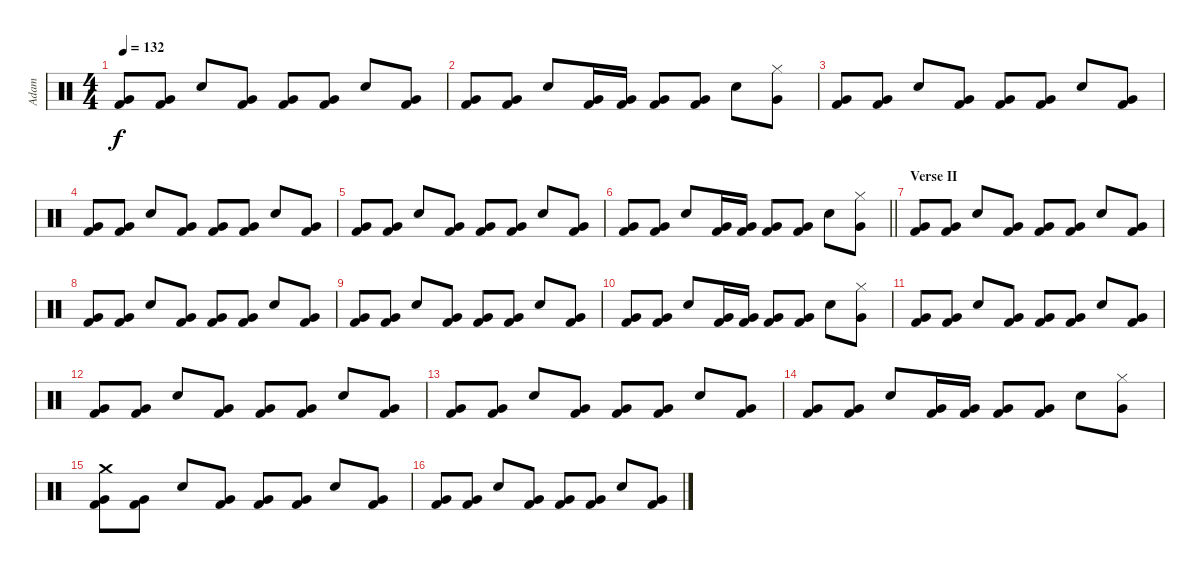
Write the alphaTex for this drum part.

\track ("Adam" "Adam") {instrument percussion}
\staff {score}
\articulation defaults
\ts (4 4)
\tempo 132
\clef neutral
\ks c
("Very Low Tom (hit)" "Kick (hit) 2").8{dy f} ("Very Low Tom (hit)" "Kick (hit) 2").8 "Snare (hit) 2".8 ("Very Low Tom (hit)" "Kick (hit) 2").8 ("Very Low Tom (hit)" "Kick (hit) 2").8 ("Very Low Tom (hit)" "Kick (hit) 2").8 "Snare (hit) 2".8 ("Very Low Tom (hit)" "Kick (hit) 2").8 |
("Very Low Tom (hit)" "Kick (hit) 2").8 ("Very Low Tom (hit)" "Kick (hit) 2").8 "Snare (hit) 2".8 ("Very Low Tom (hit)" "Kick (hit) 2").16 ("Very Low Tom (hit)" "Kick (hit) 2").16 ("Very Low Tom (hit)" "Kick (hit) 2").8 ("Very Low Tom (hit)" "Kick (hit) 2").8 "Snare (hit) 2".8 ("Hi-Hat (closed)" "Very Low Tom (hit)").8 |
("Very Low Tom (hit)" "Kick (hit) 2").8 ("Very Low Tom (hit)" "Kick (hit) 2").8 "Snare (hit) 2".8 ("Very Low Tom (hit)" "Kick (hit) 2").8 ("Very Low Tom (hit)" "Kick (hit) 2").8 ("Very Low Tom (hit)" "Kick (hit) 2").8 "Snare (hit) 2".8 ("Very Low Tom (hit)" "Kick (hit) 2").8 |
("Very Low Tom (hit)" "Kick (hit) 2").8 ("Very Low Tom (hit)" "Kick (hit) 2").8 "Snare (hit) 2".8 ("Very Low Tom (hit)" "Kick (hit) 2").8 ("Very Low Tom (hit)" "Kick (hit) 2").8 ("Very Low Tom (hit)" "Kick (hit) 2").8 "Snare (hit) 2".8 ("Very Low Tom (hit)" "Kick (hit) 2").8 |
("Very Low Tom (hit)" "Kick (hit) 2").8 ("Very Low Tom (hit)" "Kick (hit) 2").8 "Snare (hit) 2".8 ("Very Low Tom (hit)" "Kick (hit) 2").8 ("Very Low Tom (hit)" "Kick (hit) 2").8 ("Very Low Tom (hit)" "Kick (hit) 2").8 "Snare (hit) 2".8 ("Very Low Tom (hit)" "Kick (hit) 2").8 |
\barLineRight lightlight
("Very Low Tom (hit)" "Kick (hit) 2").8 ("Very Low Tom (hit)" "Kick (hit) 2").8 "Snare (hit) 2".8 ("Very Low Tom (hit)" "Kick (hit) 2").16 ("Very Low Tom (hit)" "Kick (hit) 2").16 ("Very Low Tom (hit)" "Kick (hit) 2").8 ("Very Low Tom (hit)" "Kick (hit) 2").8 "Snare (hit) 2".8 ("Hi-Hat (closed)" "Very Low Tom (hit)").8 |
\section ("" "Verse II")
("Very Low Tom (hit)" "Kick (hit) 2").8 ("Very Low Tom (hit)" "Kick (hit) 2").8 "Snare (hit) 2".8 ("Very Low Tom (hit)" "Kick (hit) 2").8 ("Very Low Tom (hit)" "Kick (hit) 2").8 ("Very Low Tom (hit)" "Kick (hit) 2").8 "Snare (hit) 2".8 ("Very Low Tom (hit)" "Kick (hit) 2").8 |
("Very Low Tom (hit)" "Kick (hit) 2").8 ("Very Low Tom (hit)" "Kick (hit) 2").8 "Snare (hit) 2".8 ("Very Low Tom (hit)" "Kick (hit) 2").8 ("Very Low Tom (hit)" "Kick (hit) 2").8 ("Very Low Tom (hit)" "Kick (hit) 2").8 "Snare (hit) 2".8 ("Very Low Tom (hit)" "Kick (hit) 2").8 |
("Very Low Tom (hit)" "Kick (hit) 2").8 ("Very Low Tom (hit)" "Kick (hit) 2").8 "Snare (hit) 2".8 ("Very Low Tom (hit)" "Kick (hit) 2").8 ("Very Low Tom (hit)" "Kick (hit) 2").8 ("Very Low Tom (hit)" "Kick (hit) 2").8 "Snare (hit) 2".8 ("Very Low Tom (hit)" "Kick (hit) 2").8 |
("Very Low Tom (hit)" "Kick (hit) 2").8 ("Very Low Tom (hit)" "Kick (hit) 2").8 "Snare (hit) 2".8 ("Very Low Tom (hit)" "Kick (hit) 2").16 ("Very Low Tom (hit)" "Kick (hit) 2").16 ("Very Low Tom (hit)" "Kick (hit) 2").8 ("Very Low Tom (hit)" "Kick (hit) 2").8 "Snare (hit) 2".8 ("Hi-Hat (closed)" "Very Low Tom (hit)").8 |
("Very Low Tom (hit)" "Kick (hit) 2").8 ("Very Low Tom (hit)" "Kick (hit) 2").8 "Snare (hit) 2".8 ("Very Low Tom (hit)" "Kick (hit) 2").8 ("Very Low Tom (hit)" "Kick (hit) 2").8 ("Very Low Tom (hit)" "Kick (hit) 2").8 "Snare (hit) 2".8 ("Very Low Tom (hit)" "Kick (hit) 2").8 |
("Very Low Tom (hit)" "Kick (hit) 2").8 ("Very Low Tom (hit)" "Kick (hit) 2").8 "Snare (hit) 2".8 ("Very Low Tom (hit)" "Kick (hit) 2").8 ("Very Low Tom (hit)" "Kick (hit) 2").8 ("Very Low Tom (hit)" "Kick (hit) 2").8 "Snare (hit) 2".8 ("Very Low Tom (hit)" "Kick (hit) 2").8 |
("Very Low Tom (hit)" "Kick (hit) 2").8 ("Very Low Tom (hit)" "Kick (hit) 2").8 "Snare (hit) 2".8 ("Very Low Tom (hit)" "Kick (hit) 2").8 ("Very Low Tom (hit)" "Kick (hit) 2").8 ("Very Low Tom (hit)" "Kick (hit) 2").8 "Snare (hit) 2".8 ("Very Low Tom (hit)" "Kick (hit) 2").8 |
("Very Low Tom (hit)" "Kick (hit) 2").8 ("Very Low Tom (hit)" "Kick (hit) 2").8 "Snare (hit) 2".8 ("Very Low Tom (hit)" "Kick (hit) 2").16 ("Very Low Tom (hit)" "Kick (hit) 2").16 ("Very Low Tom (hit)" "Kick (hit) 2").8 ("Very Low Tom (hit)" "Kick (hit) 2").8 "Snare (hit) 2".8 ("Hi-Hat (closed)" "Very Low Tom (hit)").8 |
("Crash medium (hit)" "Very Low Tom (hit)" "Kick (hit) 2").8 ("Very Low Tom (hit)" "Kick (hit) 2").8 "Snare (hit) 2".8 ("Very Low Tom (hit)" "Kick (hit) 2").8 ("Very Low Tom (hit)" "Kick (hit) 2").8 ("Very Low Tom (hit)" "Kick (hit) 2").8 "Snare (hit) 2".8 ("Very Low Tom (hit)" "Kick (hit) 2").8 |
("Very Low Tom (hit)" "Kick (hit) 2").8 ("Very Low Tom (hit)" "Kick (hit) 2").8 "Snare (hit) 2".8 ("Very Low Tom (hit)" "Kick (hit) 2").8 ("Very Low Tom (hit)" "Kick (hit) 2").8 ("Very Low Tom (hit)" "Kick (hit) 2").8 "Snare (hit) 2".8 ("Very Low Tom (hit)" "Kick (hit) 2").8
